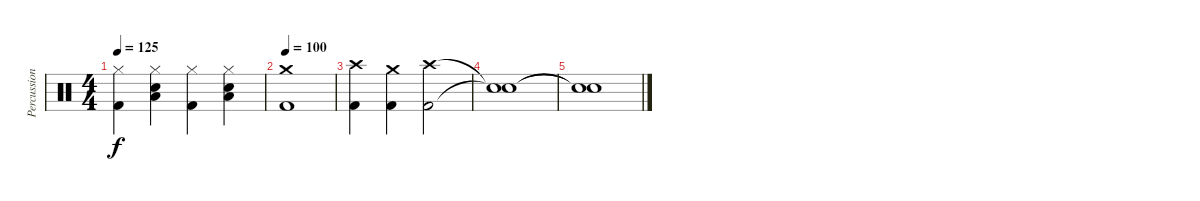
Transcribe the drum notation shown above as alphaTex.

\track ("Percussion" "Percussion") {instrument percussion}
\staff {score}
\articulation defaults
\ts (4 4)
\tempo 125
\clef neutral
\ks c
("Hi-Hat (closed)" "Kick (hit) 2").4{dy f} ("Hi-Hat (closed)" "Low Floor Tom (hit)" "Metronome (bell)").4 ("Hi-Hat (closed)" "Kick (hit) 2").4 ("Hi-Hat (closed)" "Low Floor Tom (hit)" "Metronome (bell)").4 |
\tempo 100
("Crash medium (hit)" "Kick (hit) 2").1 |
("Crash high (hit)" "Kick (hit) 2").4 ("Crash medium (hit)" "Kick (hit) 2").4 ("Crash high (hit)" "Kick (hit) 2").2 |
("Snare (hit)"{t} "Snare (hit)"{t}).1 |
("Snare (hit)"{t} "Snare (hit)"{t}).1
